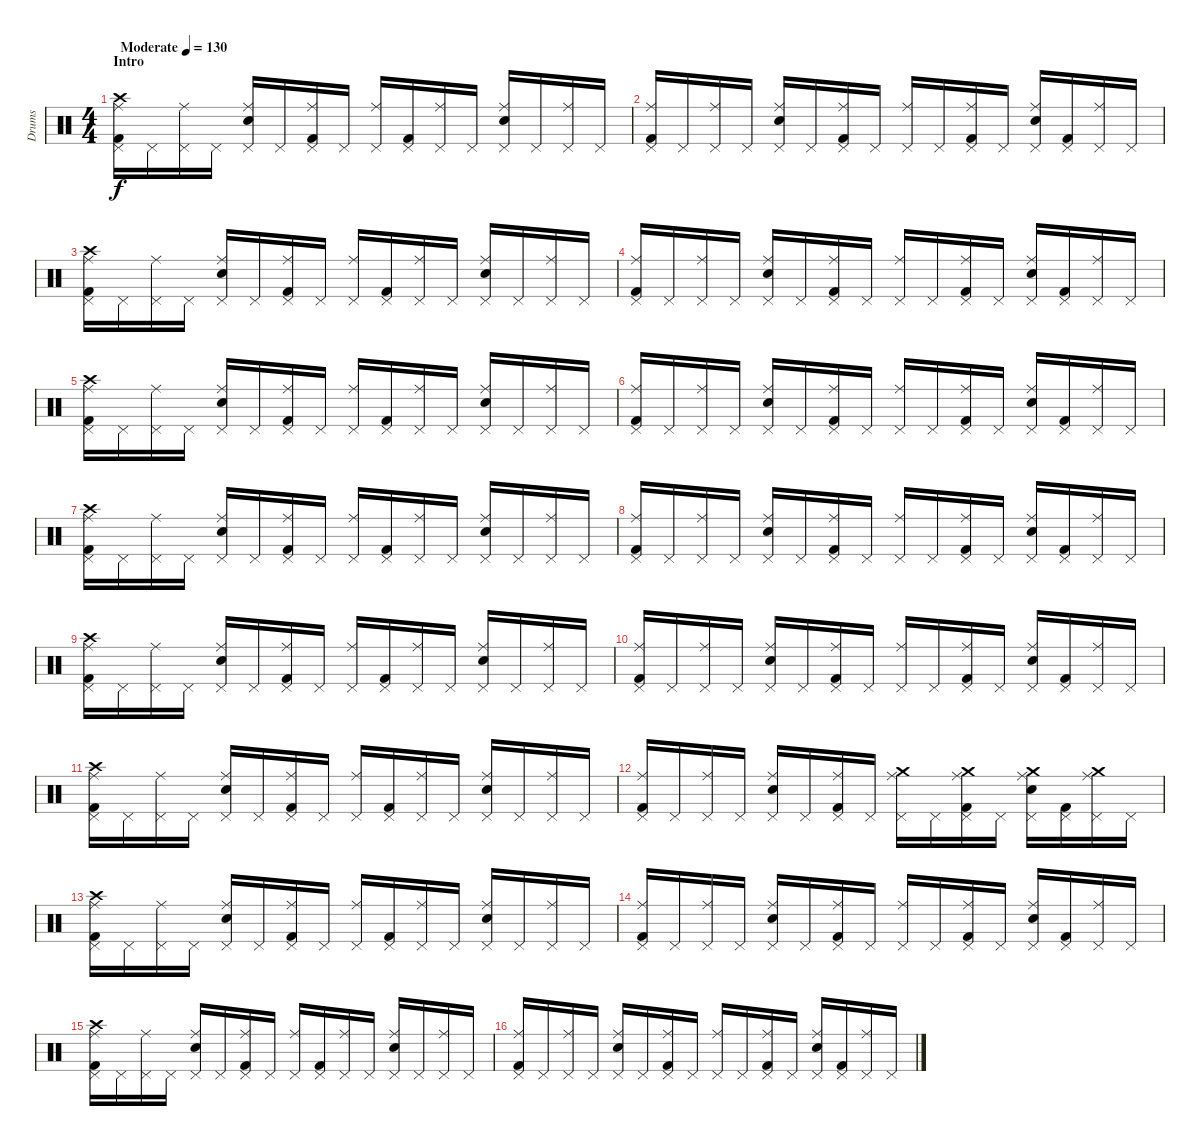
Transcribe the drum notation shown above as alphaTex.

\track ("Drums" "Drums") {instrument percussion}
\staff {score}
\articulation defaults
\ts (4 4)
\section ("" "Intro")
\tempo (130 "Moderate")
\clef neutral
\ks c
("Crash high (hit)" "Pedal Hi-Hat (hit)" "Ride (middle)" "Kick (hit) 2").16{dy f} "Pedal Hi-Hat (hit)".16 ("Pedal Hi-Hat (hit)" "Ride (middle)").16 "Pedal Hi-Hat (hit)".16 ("Pedal Hi-Hat (hit)" "Ride (middle)" "Electric Snare (hit)").16 "Pedal Hi-Hat (hit)".16 ("Pedal Hi-Hat (hit)" "Ride (middle)" "Kick (hit) 2").16 "Pedal Hi-Hat (hit)".16 ("Pedal Hi-Hat (hit)" "Ride (middle)").16 ("Pedal Hi-Hat (hit)" "Kick (hit) 2").16 ("Pedal Hi-Hat (hit)" "Ride (middle)").16 "Pedal Hi-Hat (hit)".16 ("Pedal Hi-Hat (hit)" "Ride (middle)" "Electric Snare (hit)").16 "Pedal Hi-Hat (hit)".16 ("Pedal Hi-Hat (hit)" "Ride (middle)").16 "Pedal Hi-Hat (hit)".16 |
("Ride (middle)" "Pedal Hi-Hat (hit)" "Kick (hit) 2").16 "Pedal Hi-Hat (hit)".16 ("Ride (middle)" "Pedal Hi-Hat (hit)").16 "Pedal Hi-Hat (hit)".16 ("Ride (middle)" "Pedal Hi-Hat (hit)" "Electric Snare (hit)").16 "Pedal Hi-Hat (hit)".16 ("Ride (middle)" "Pedal Hi-Hat (hit)" "Kick (hit) 2").16 "Pedal Hi-Hat (hit)".16 ("Ride (middle)" "Pedal Hi-Hat (hit)").16 "Pedal Hi-Hat (hit)".16 ("Ride (middle)" "Pedal Hi-Hat (hit)" "Kick (hit) 2").16 "Pedal Hi-Hat (hit)".16 ("Ride (middle)" "Pedal Hi-Hat (hit)" "Electric Snare (hit)").16 ("Pedal Hi-Hat (hit)" "Kick (hit) 2").16 ("Ride (middle)" "Pedal Hi-Hat (hit)").16 "Pedal Hi-Hat (hit)".16 |
("Crash high (hit)" "Pedal Hi-Hat (hit)" "Ride (middle)" "Kick (hit) 2").16 "Pedal Hi-Hat (hit)".16 ("Pedal Hi-Hat (hit)" "Ride (middle)").16 "Pedal Hi-Hat (hit)".16 ("Pedal Hi-Hat (hit)" "Ride (middle)" "Electric Snare (hit)").16 "Pedal Hi-Hat (hit)".16 ("Pedal Hi-Hat (hit)" "Ride (middle)" "Kick (hit) 2").16 "Pedal Hi-Hat (hit)".16 ("Pedal Hi-Hat (hit)" "Ride (middle)").16 ("Pedal Hi-Hat (hit)" "Kick (hit) 2").16 ("Pedal Hi-Hat (hit)" "Ride (middle)").16 "Pedal Hi-Hat (hit)".16 ("Pedal Hi-Hat (hit)" "Ride (middle)" "Electric Snare (hit)").16 "Pedal Hi-Hat (hit)".16 ("Pedal Hi-Hat (hit)" "Ride (middle)").16 "Pedal Hi-Hat (hit)".16 |
("Ride (middle)" "Pedal Hi-Hat (hit)" "Kick (hit) 2").16 "Pedal Hi-Hat (hit)".16 ("Ride (middle)" "Pedal Hi-Hat (hit)").16 "Pedal Hi-Hat (hit)".16 ("Ride (middle)" "Pedal Hi-Hat (hit)" "Electric Snare (hit)").16 "Pedal Hi-Hat (hit)".16 ("Ride (middle)" "Pedal Hi-Hat (hit)" "Kick (hit) 2").16 "Pedal Hi-Hat (hit)".16 ("Ride (middle)" "Pedal Hi-Hat (hit)").16 "Pedal Hi-Hat (hit)".16 ("Ride (middle)" "Pedal Hi-Hat (hit)" "Kick (hit) 2").16 "Pedal Hi-Hat (hit)".16 ("Ride (middle)" "Pedal Hi-Hat (hit)" "Electric Snare (hit)").16 ("Pedal Hi-Hat (hit)" "Kick (hit) 2").16 ("Ride (middle)" "Pedal Hi-Hat (hit)").16 "Pedal Hi-Hat (hit)".16 |
("Crash high (hit)" "Pedal Hi-Hat (hit)" "Ride (middle)" "Kick (hit) 2").16 "Pedal Hi-Hat (hit)".16 ("Pedal Hi-Hat (hit)" "Ride (middle)").16 "Pedal Hi-Hat (hit)".16 ("Pedal Hi-Hat (hit)" "Ride (middle)" "Electric Snare (hit)").16 "Pedal Hi-Hat (hit)".16 ("Pedal Hi-Hat (hit)" "Ride (middle)" "Kick (hit) 2").16 "Pedal Hi-Hat (hit)".16 ("Pedal Hi-Hat (hit)" "Ride (middle)").16 ("Pedal Hi-Hat (hit)" "Kick (hit) 2").16 ("Pedal Hi-Hat (hit)" "Ride (middle)").16 "Pedal Hi-Hat (hit)".16 ("Pedal Hi-Hat (hit)" "Ride (middle)" "Electric Snare (hit)").16 "Pedal Hi-Hat (hit)".16 ("Pedal Hi-Hat (hit)" "Ride (middle)").16 "Pedal Hi-Hat (hit)".16 |
("Ride (middle)" "Pedal Hi-Hat (hit)" "Kick (hit) 2").16 "Pedal Hi-Hat (hit)".16 ("Ride (middle)" "Pedal Hi-Hat (hit)").16 "Pedal Hi-Hat (hit)".16 ("Ride (middle)" "Pedal Hi-Hat (hit)" "Electric Snare (hit)").16 "Pedal Hi-Hat (hit)".16 ("Ride (middle)" "Pedal Hi-Hat (hit)" "Kick (hit) 2").16 "Pedal Hi-Hat (hit)".16 ("Ride (middle)" "Pedal Hi-Hat (hit)").16 "Pedal Hi-Hat (hit)".16 ("Ride (middle)" "Pedal Hi-Hat (hit)" "Kick (hit) 2").16 "Pedal Hi-Hat (hit)".16 ("Ride (middle)" "Pedal Hi-Hat (hit)" "Electric Snare (hit)").16 ("Pedal Hi-Hat (hit)" "Kick (hit) 2").16 ("Ride (middle)" "Pedal Hi-Hat (hit)").16 "Pedal Hi-Hat (hit)".16 |
("Crash high (hit)" "Pedal Hi-Hat (hit)" "Ride (middle)" "Kick (hit) 2").16 "Pedal Hi-Hat (hit)".16 ("Pedal Hi-Hat (hit)" "Ride (middle)").16 "Pedal Hi-Hat (hit)".16 ("Pedal Hi-Hat (hit)" "Ride (middle)" "Electric Snare (hit)").16 "Pedal Hi-Hat (hit)".16 ("Pedal Hi-Hat (hit)" "Ride (middle)" "Kick (hit) 2").16 "Pedal Hi-Hat (hit)".16 ("Pedal Hi-Hat (hit)" "Ride (middle)").16 ("Pedal Hi-Hat (hit)" "Kick (hit) 2").16 ("Pedal Hi-Hat (hit)" "Ride (middle)").16 "Pedal Hi-Hat (hit)".16 ("Pedal Hi-Hat (hit)" "Ride (middle)" "Electric Snare (hit)").16 "Pedal Hi-Hat (hit)".16 ("Pedal Hi-Hat (hit)" "Ride (middle)").16 "Pedal Hi-Hat (hit)".16 |
("Ride (middle)" "Pedal Hi-Hat (hit)" "Kick (hit) 2").16 "Pedal Hi-Hat (hit)".16 ("Ride (middle)" "Pedal Hi-Hat (hit)").16 "Pedal Hi-Hat (hit)".16 ("Ride (middle)" "Pedal Hi-Hat (hit)" "Electric Snare (hit)").16 "Pedal Hi-Hat (hit)".16 ("Ride (middle)" "Pedal Hi-Hat (hit)" "Kick (hit) 2").16 "Pedal Hi-Hat (hit)".16 ("Ride (middle)" "Pedal Hi-Hat (hit)").16 "Pedal Hi-Hat (hit)".16 ("Ride (middle)" "Pedal Hi-Hat (hit)" "Kick (hit) 2").16 "Pedal Hi-Hat (hit)".16 ("Ride (middle)" "Pedal Hi-Hat (hit)" "Electric Snare (hit)").16 ("Pedal Hi-Hat (hit)" "Kick (hit) 2").16 ("Ride (middle)" "Pedal Hi-Hat (hit)").16 "Pedal Hi-Hat (hit)".16 |
("Crash high (hit)" "Pedal Hi-Hat (hit)" "Ride (middle)" "Kick (hit) 2").16 "Pedal Hi-Hat (hit)".16 ("Pedal Hi-Hat (hit)" "Ride (middle)").16 "Pedal Hi-Hat (hit)".16 ("Pedal Hi-Hat (hit)" "Ride (middle)" "Electric Snare (hit)").16 "Pedal Hi-Hat (hit)".16 ("Pedal Hi-Hat (hit)" "Ride (middle)" "Kick (hit) 2").16 "Pedal Hi-Hat (hit)".16 ("Pedal Hi-Hat (hit)" "Ride (middle)").16 ("Pedal Hi-Hat (hit)" "Kick (hit) 2").16 ("Pedal Hi-Hat (hit)" "Ride (middle)").16 "Pedal Hi-Hat (hit)".16 ("Pedal Hi-Hat (hit)" "Ride (middle)" "Electric Snare (hit)").16 "Pedal Hi-Hat (hit)".16 ("Pedal Hi-Hat (hit)" "Ride (middle)").16 "Pedal Hi-Hat (hit)".16 |
("Ride (middle)" "Pedal Hi-Hat (hit)" "Kick (hit) 2").16 "Pedal Hi-Hat (hit)".16 ("Ride (middle)" "Pedal Hi-Hat (hit)").16 "Pedal Hi-Hat (hit)".16 ("Ride (middle)" "Pedal Hi-Hat (hit)" "Electric Snare (hit)").16 "Pedal Hi-Hat (hit)".16 ("Ride (middle)" "Pedal Hi-Hat (hit)" "Kick (hit) 2").16 "Pedal Hi-Hat (hit)".16 ("Ride (middle)" "Pedal Hi-Hat (hit)").16 "Pedal Hi-Hat (hit)".16 ("Ride (middle)" "Pedal Hi-Hat (hit)" "Kick (hit) 2").16 "Pedal Hi-Hat (hit)".16 ("Ride (middle)" "Pedal Hi-Hat (hit)" "Electric Snare (hit)").16 ("Pedal Hi-Hat (hit)" "Kick (hit) 2").16 ("Ride (middle)" "Pedal Hi-Hat (hit)").16 "Pedal Hi-Hat (hit)".16 |
("Crash high (hit)" "Pedal Hi-Hat (hit)" "Ride (middle)" "Kick (hit) 2").16 "Pedal Hi-Hat (hit)".16 ("Pedal Hi-Hat (hit)" "Ride (middle)").16 "Pedal Hi-Hat (hit)".16 ("Pedal Hi-Hat (hit)" "Ride (middle)" "Electric Snare (hit)").16 "Pedal Hi-Hat (hit)".16 ("Pedal Hi-Hat (hit)" "Ride (middle)" "Kick (hit) 2").16 "Pedal Hi-Hat (hit)".16 ("Pedal Hi-Hat (hit)" "Ride (middle)").16 ("Pedal Hi-Hat (hit)" "Kick (hit) 2").16 ("Pedal Hi-Hat (hit)" "Ride (middle)").16 "Pedal Hi-Hat (hit)".16 ("Pedal Hi-Hat (hit)" "Ride (middle)" "Electric Snare (hit)").16 "Pedal Hi-Hat (hit)".16 ("Pedal Hi-Hat (hit)" "Ride (middle)").16 "Pedal Hi-Hat (hit)".16 |
("Ride (middle)" "Pedal Hi-Hat (hit)" "Kick (hit) 2").16 "Pedal Hi-Hat (hit)".16 ("Ride (middle)" "Pedal Hi-Hat (hit)").16 "Pedal Hi-Hat (hit)".16 ("Ride (middle)" "Pedal Hi-Hat (hit)" "Electric Snare (hit)").16 "Pedal Hi-Hat (hit)".16 ("Ride (middle)" "Pedal Hi-Hat (hit)" "Kick (hit) 2").16 "Pedal Hi-Hat (hit)".16 ("Crash medium (hit)" "Ride (middle)" "Pedal Hi-Hat (hit)").16 "Pedal Hi-Hat (hit)".16 ("Crash medium (hit)" "Ride (middle)" "Pedal Hi-Hat (hit)" "Kick (hit) 2").16 "Pedal Hi-Hat (hit)".16 ("Crash medium (hit)" "Ride (middle)" "Pedal Hi-Hat (hit)" "Electric Snare (hit)").16 ("Pedal Hi-Hat (hit)" "Kick (hit) 2").16 ("Crash medium (hit)" "Ride (middle)" "Pedal Hi-Hat (hit)").16 "Pedal Hi-Hat (hit)".16 |
("Crash high (hit)" "Pedal Hi-Hat (hit)" "Ride (middle)" "Kick (hit) 2").16 "Pedal Hi-Hat (hit)".16 ("Pedal Hi-Hat (hit)" "Ride (middle)").16 "Pedal Hi-Hat (hit)".16 ("Pedal Hi-Hat (hit)" "Ride (middle)" "Electric Snare (hit)").16 "Pedal Hi-Hat (hit)".16 ("Pedal Hi-Hat (hit)" "Ride (middle)" "Kick (hit) 2").16 "Pedal Hi-Hat (hit)".16 ("Pedal Hi-Hat (hit)" "Ride (middle)").16 ("Pedal Hi-Hat (hit)" "Kick (hit) 2").16 ("Pedal Hi-Hat (hit)" "Ride (middle)").16 "Pedal Hi-Hat (hit)".16 ("Pedal Hi-Hat (hit)" "Ride (middle)" "Electric Snare (hit)").16 "Pedal Hi-Hat (hit)".16 ("Pedal Hi-Hat (hit)" "Ride (middle)").16 "Pedal Hi-Hat (hit)".16 |
("Ride (middle)" "Pedal Hi-Hat (hit)" "Kick (hit) 2").16 "Pedal Hi-Hat (hit)".16 ("Ride (middle)" "Pedal Hi-Hat (hit)").16 "Pedal Hi-Hat (hit)".16 ("Ride (middle)" "Pedal Hi-Hat (hit)" "Electric Snare (hit)").16 "Pedal Hi-Hat (hit)".16 ("Ride (middle)" "Pedal Hi-Hat (hit)" "Kick (hit) 2").16 "Pedal Hi-Hat (hit)".16 ("Ride (middle)" "Pedal Hi-Hat (hit)").16 "Pedal Hi-Hat (hit)".16 ("Ride (middle)" "Pedal Hi-Hat (hit)" "Kick (hit) 2").16 "Pedal Hi-Hat (hit)".16 ("Ride (middle)" "Pedal Hi-Hat (hit)" "Electric Snare (hit)").16 ("Pedal Hi-Hat (hit)" "Kick (hit) 2").16 ("Ride (middle)" "Pedal Hi-Hat (hit)").16 "Pedal Hi-Hat (hit)".16 |
("Crash high (hit)" "Pedal Hi-Hat (hit)" "Ride (middle)" "Kick (hit) 2").16 "Pedal Hi-Hat (hit)".16 ("Pedal Hi-Hat (hit)" "Ride (middle)").16 "Pedal Hi-Hat (hit)".16 ("Pedal Hi-Hat (hit)" "Ride (middle)" "Electric Snare (hit)").16 "Pedal Hi-Hat (hit)".16 ("Pedal Hi-Hat (hit)" "Ride (middle)" "Kick (hit) 2").16 "Pedal Hi-Hat (hit)".16 ("Pedal Hi-Hat (hit)" "Ride (middle)").16 ("Pedal Hi-Hat (hit)" "Kick (hit) 2").16 ("Pedal Hi-Hat (hit)" "Ride (middle)").16 "Pedal Hi-Hat (hit)".16 ("Pedal Hi-Hat (hit)" "Ride (middle)" "Electric Snare (hit)").16 "Pedal Hi-Hat (hit)".16 ("Pedal Hi-Hat (hit)" "Ride (middle)").16 "Pedal Hi-Hat (hit)".16 |
("Ride (middle)" "Pedal Hi-Hat (hit)" "Kick (hit) 2").16 "Pedal Hi-Hat (hit)".16 ("Ride (middle)" "Pedal Hi-Hat (hit)").16 "Pedal Hi-Hat (hit)".16 ("Ride (middle)" "Pedal Hi-Hat (hit)" "Electric Snare (hit)").16 "Pedal Hi-Hat (hit)".16 ("Ride (middle)" "Pedal Hi-Hat (hit)" "Kick (hit) 2").16 "Pedal Hi-Hat (hit)".16 ("Ride (middle)" "Pedal Hi-Hat (hit)").16 "Pedal Hi-Hat (hit)".16 ("Ride (middle)" "Pedal Hi-Hat (hit)" "Kick (hit) 2").16 "Pedal Hi-Hat (hit)".16 ("Ride (middle)" "Pedal Hi-Hat (hit)" "Electric Snare (hit)").16 ("Pedal Hi-Hat (hit)" "Kick (hit) 2").16 ("Ride (middle)" "Pedal Hi-Hat (hit)").16 "Pedal Hi-Hat (hit)".16
